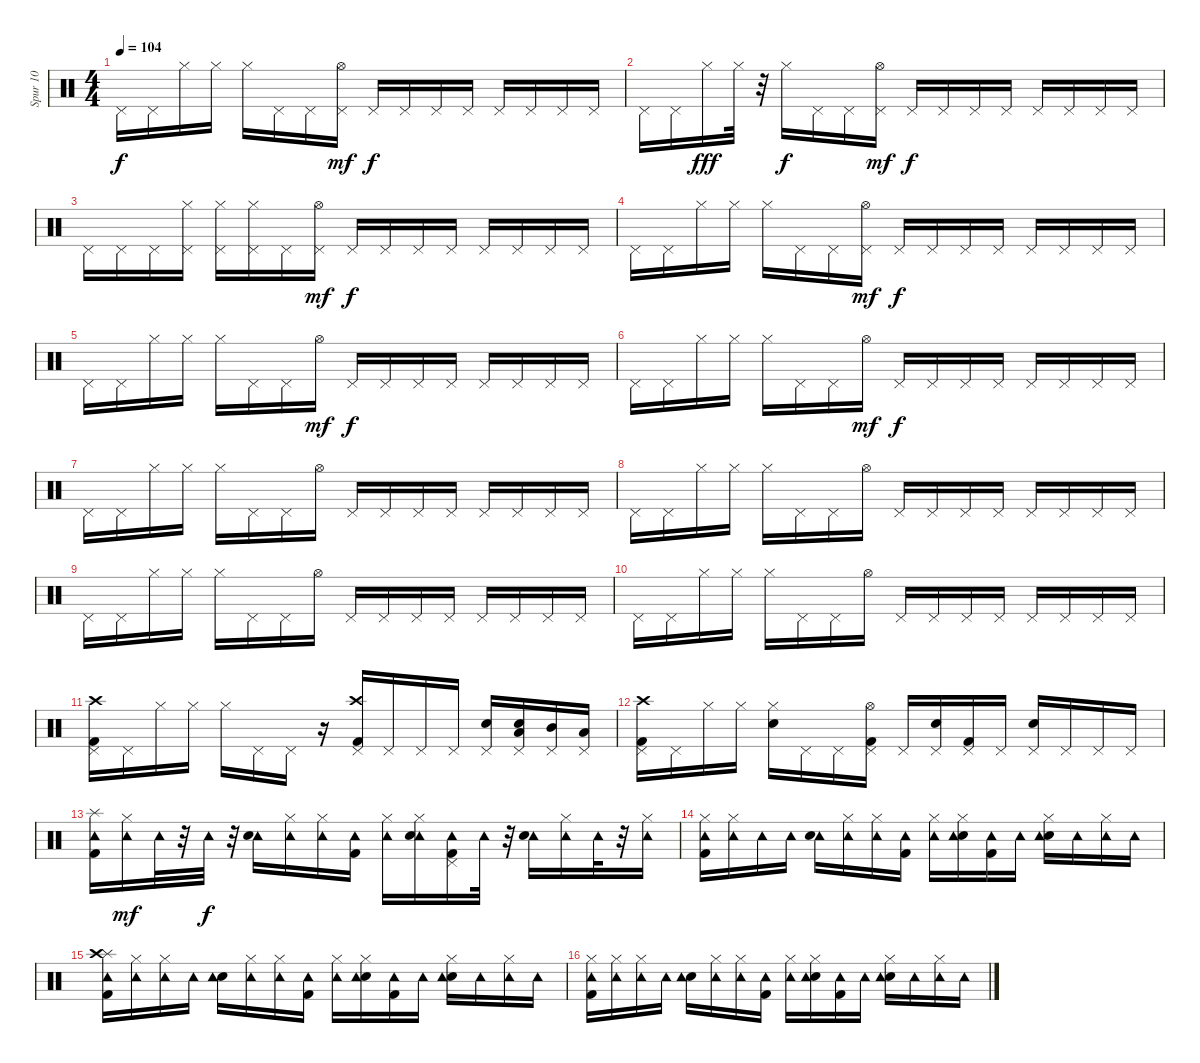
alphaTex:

\track ("Spur 10" "Spur 10") {instrument percussion}
\staff {score}
\articulation defaults
\ts (4 4)
\tempo 104
\clef neutral
\ks c "Pedal Hi-Hat (hit)".16{dy f} "Pedal Hi-Hat (hit)".16 "Hi-Hat (closed)".16 "Hi-Hat (closed)".16 "Hi-Hat (closed)".16 "Pedal Hi-Hat (hit)".16 "Pedal Hi-Hat (hit)".16
("Hi-Hat (open)" "Pedal Hi-Hat (hit)").16{dy mf} "Pedal Hi-Hat (hit)".16{dy f} "Pedal Hi-Hat (hit)".16 "Pedal Hi-Hat (hit)".16 "Pedal Hi-Hat (hit)".16 "Pedal Hi-Hat (hit)".16 "Pedal Hi-Hat (hit)".16 "Pedal Hi-Hat (hit)".16 "Pedal Hi-Hat (hit)".16 |
"Pedal Hi-Hat (hit)".16 "Pedal Hi-Hat (hit)".16 "Hi-Hat (closed)".16{dy fff} "Hi-Hat (closed)".32 r.32 "Hi-Hat (closed)".16{dy f} "Pedal Hi-Hat (hit)".16 "Pedal Hi-Hat (hit)".16 ("Hi-Hat (open)" "Pedal Hi-Hat (hit)").16{dy mf} "Pedal Hi-Hat (hit)".16{dy f} "Pedal Hi-Hat (hit)".16 "Pedal Hi-Hat (hit)".16 "Pedal Hi-Hat (hit)".16 "Pedal Hi-Hat (hit)".16 "Pedal Hi-Hat (hit)".16 "Pedal Hi-Hat (hit)".16 "Pedal Hi-Hat (hit)".16 |
"Pedal Hi-Hat (hit)".16 "Pedal Hi-Hat (hit)".16 "Pedal Hi-Hat (hit)".16 ("Pedal Hi-Hat (hit)" "Hi-Hat (closed)").16 ("Pedal Hi-Hat (hit)" "Hi-Hat (closed)").16 ("Pedal Hi-Hat (hit)" "Hi-Hat (closed)").16 "Pedal Hi-Hat (hit)".16 ("Hi-Hat (open)" "Pedal Hi-Hat (hit)").16{dy mf} "Pedal Hi-Hat (hit)".16{dy f} "Pedal Hi-Hat (hit)".16 "Pedal Hi-Hat (hit)".16 "Pedal Hi-Hat (hit)".16 "Pedal Hi-Hat (hit)".16 "Pedal Hi-Hat (hit)".16 "Pedal Hi-Hat (hit)".16 "Pedal Hi-Hat (hit)".16 |
"Pedal Hi-Hat (hit)".16 "Pedal Hi-Hat (hit)".16 "Hi-Hat (closed)".16 "Hi-Hat (closed)".16 "Hi-Hat (closed)".16 "Pedal Hi-Hat (hit)".16 "Pedal Hi-Hat (hit)".16 ("Hi-Hat (open)" "Pedal Hi-Hat (hit)").16{dy mf} "Pedal Hi-Hat (hit)".16{dy f} "Pedal Hi-Hat (hit)".16 "Pedal Hi-Hat (hit)".16 "Pedal Hi-Hat (hit)".16 "Pedal Hi-Hat (hit)".16 "Pedal Hi-Hat (hit)".16 "Pedal Hi-Hat (hit)".16 "Pedal Hi-Hat (hit)".16 |
"Pedal Hi-Hat (hit)".16 "Pedal Hi-Hat (hit)".16 "Hi-Hat (closed)".16 "Hi-Hat (closed)".16 "Hi-Hat (closed)".16 "Pedal Hi-Hat (hit)".16 "Pedal Hi-Hat (hit)".16 "Hi-Hat (open)".16{dy mf} "Pedal Hi-Hat (hit)".16{dy f} "Pedal Hi-Hat (hit)".16 "Pedal Hi-Hat (hit)".16 "Pedal Hi-Hat (hit)".16 "Pedal Hi-Hat (hit)".16 "Pedal Hi-Hat (hit)".16 "Pedal Hi-Hat (hit)".16 "Pedal Hi-Hat (hit)".16 |
"Pedal Hi-Hat (hit)".16 "Pedal Hi-Hat (hit)".16 "Hi-Hat (closed)".16 "Hi-Hat (closed)".16 "Hi-Hat (closed)".16 "Pedal Hi-Hat (hit)".16 "Pedal Hi-Hat (hit)".16 "Hi-Hat (open)".16{dy mf} "Pedal Hi-Hat (hit)".16{dy f} "Pedal Hi-Hat (hit)".16 "Pedal Hi-Hat (hit)".16 "Pedal Hi-Hat (hit)".16 "Pedal Hi-Hat (hit)".16 "Pedal Hi-Hat (hit)".16 "Pedal Hi-Hat (hit)".16 "Pedal Hi-Hat (hit)".16 |
"Pedal Hi-Hat (hit)".16 "Pedal Hi-Hat (hit)".16 "Hi-Hat (closed)".16 "Hi-Hat (closed)".16 "Hi-Hat (closed)".16 "Pedal Hi-Hat (hit)".16 "Pedal Hi-Hat (hit)".16 "Hi-Hat (open)".16 "Pedal Hi-Hat (hit)".16 "Pedal Hi-Hat (hit)".16 "Pedal Hi-Hat (hit)".16 "Pedal Hi-Hat (hit)".16 "Pedal Hi-Hat (hit)".16 "Pedal Hi-Hat (hit)".16 "Pedal Hi-Hat (hit)".16 "Pedal Hi-Hat (hit)".16 |
"Pedal Hi-Hat (hit)".16 "Pedal Hi-Hat (hit)".16 "Hi-Hat (closed)".16 "Hi-Hat (closed)".16 "Hi-Hat (closed)".16 "Pedal Hi-Hat (hit)".16 "Pedal Hi-Hat (hit)".16 "Hi-Hat (open)".16 "Pedal Hi-Hat (hit)".16 "Pedal Hi-Hat (hit)".16 "Pedal Hi-Hat (hit)".16 "Pedal Hi-Hat (hit)".16 "Pedal Hi-Hat (hit)".16 "Pedal Hi-Hat (hit)".16 "Pedal Hi-Hat (hit)".16 "Pedal Hi-Hat (hit)".16 |
"Pedal Hi-Hat (hit)".16 "Pedal Hi-Hat (hit)".16 "Hi-Hat (closed)".16 "Hi-Hat (closed)".16 "Hi-Hat (closed)".16 "Pedal Hi-Hat (hit)".16 "Pedal Hi-Hat (hit)".16 "Hi-Hat (open)".16 "Pedal Hi-Hat (hit)".16 "Pedal Hi-Hat (hit)".16 "Pedal Hi-Hat (hit)".16 "Pedal Hi-Hat (hit)".16 "Pedal Hi-Hat (hit)".16 "Pedal Hi-Hat (hit)".16 "Pedal Hi-Hat (hit)".16 "Pedal Hi-Hat (hit)".16 |
"Pedal Hi-Hat (hit)".16 "Pedal Hi-Hat (hit)".16 "Hi-Hat (closed)".16 "Hi-Hat (closed)".16 "Hi-Hat (closed)".16 "Pedal Hi-Hat (hit)".16 "Pedal Hi-Hat (hit)".16 "Hi-Hat (open)".16 "Pedal Hi-Hat (hit)".16 "Pedal Hi-Hat (hit)".16 "Pedal Hi-Hat (hit)".16 "Pedal Hi-Hat (hit)".16 "Pedal Hi-Hat (hit)".16 "Pedal Hi-Hat (hit)".16 "Pedal Hi-Hat (hit)".16 "Pedal Hi-Hat (hit)".16 |
("Crash high (hit)" "Pedal Hi-Hat (hit)" "Kick (hit) 2").16 "Pedal Hi-Hat (hit)".16 "Hi-Hat (closed)".16 "Hi-Hat (closed)".16 "Hi-Hat (closed)".16 "Pedal Hi-Hat (hit)".16 "Pedal Hi-Hat (hit)".16 r.16 ("Crash high (hit)" "Kick (hit) 2" "Pedal Hi-Hat (hit)").16 "Pedal Hi-Hat (hit)".16 "Pedal Hi-Hat (hit)".16 "Pedal Hi-Hat (hit)".16 ("Electric Snare (hit)" "Pedal Hi-Hat (hit)").16 ("Low Tom (hit)" "Electric Snare (hit)" "Pedal Hi-Hat (hit)").16 ("Mid Tom (hit)" "Pedal Hi-Hat (hit)").16 ("Low Tom (hit)" "Pedal Hi-Hat (hit)").16 |
("Crash high (hit)" "Kick (hit) 2" "Pedal Hi-Hat (hit)").16 "Pedal Hi-Hat (hit)".16 "Hi-Hat (closed)".16 "Hi-Hat (closed)".16 ("Electric Snare (hit)" "Hi-Hat (closed)").16 "Pedal Hi-Hat (hit)".16 "Pedal Hi-Hat (hit)".16 ("Hi-Hat (open)" "Kick (hit) 2" "Pedal Hi-Hat (hit)").16 "Pedal Hi-Hat (hit)".16 ("Electric Snare (hit)" "Pedal Hi-Hat (hit)").16 ("Kick (hit) 2" "Pedal Hi-Hat (hit)").16 "Pedal Hi-Hat (hit)".16 ("Electric Snare (hit)" "Pedal Hi-Hat (hit)").16 "Pedal Hi-Hat (hit)".16 "Pedal Hi-Hat (hit)".16 "Pedal Hi-Hat (hit)".16 |
("Tambourine (hit)" "Splash (hit)" "Kick (hit) 2").16 ("Hi-Hat (closed)" "Tambourine (hit)").16{dy mf} "Tambourine (hit)".32 r.32 "Tambourine (hit)".32{dy f} r.32 ("Tambourine (hit)" "Electric Snare (hit)").16 ("Hi-Hat (closed)" "Tambourine (hit)").16 ("Hi-Hat (closed)" "Tambourine (hit)").16 ("Tambourine (hit)" "Kick (hit) 2").16 ("Hi-Hat (closed)" "Tambourine (hit)").16 ("Hi-Hat (closed)" "Tambourine (hit)" "Electric Snare (hit)").16 ("Tambourine (hit)" "Kick (hit) 2" "Pedal Hi-Hat (hit)").16 "Tambourine (hit)".32 r.32 ("Tambourine (hit)" "Electric Snare (hit)").16 ("Hi-Hat (closed)" "Tambourine (hit)").16 "Tambourine (hit)".32 r.32 ("Hi-Hat (closed)" "Tambourine (hit)").16 |
("Hi-Hat (closed)" "Kick (hit) 2" "Tambourine (hit)").16 ("Hi-Hat (closed)" "Tambourine (hit)").16 "Tambourine (hit)".16 "Tambourine (hit)".16 ("Tambourine (hit)" "Electric Snare (hit)").16 ("Hi-Hat (closed)" "Tambourine (hit)").16 ("Hi-Hat (closed)" "Tambourine (hit)").16 ("Tambourine (hit)" "Kick (hit) 2").16 ("Hi-Hat (closed)" "Tambourine (hit)").16 ("Hi-Hat (closed)" "Electric Snare (hit)" "Tambourine (hit)").16 ("Kick (hit) 2" "Tambourine (hit)").16 "Tambourine (hit)".16 ("Hi-Hat (closed)" "Electric Snare (hit)" "Tambourine (hit)").16 "Tambourine (hit)".16 ("Hi-Hat (closed)" "Tambourine (hit)").16 "Tambourine (hit)".16 |
("Tambourine (hit)" "Kick (hit) 2" "Splash (hit)" "Crash high (hit)").16 ("Hi-Hat (closed)" "Tambourine (hit)").16 ("Hi-Hat (closed)" "Tambourine (hit)").16 "Tambourine (hit)".16 ("Electric Snare (hit)" "Tambourine (hit)").16 ("Hi-Hat (closed)" "Tambourine (hit)").16 ("Hi-Hat (closed)" "Tambourine (hit)").16 ("Kick (hit) 2" "Tambourine (hit)").16 ("Hi-Hat (closed)" "Tambourine (hit)").16 ("Electric Snare (hit)" "Hi-Hat (closed)" "Tambourine (hit)").16 ("Kick (hit) 2" "Tambourine (hit)").16 "Tambourine (hit)".16 ("Electric Snare (hit)" "Hi-Hat (closed)" "Tambourine (hit)").16 "Tambourine (hit)".16 ("Hi-Hat (closed)" "Tambourine (hit)").16 "Tambourine (hit)".16 |
("Kick (hit) 2" "Hi-Hat (closed)" "Tambourine (hit)").16 ("Hi-Hat (closed)" "Tambourine (hit)").16 ("Hi-Hat (closed)" "Tambourine (hit)").16 "Tambourine (hit)".16 ("Electric Snare (hit)" "Tambourine (hit)").16 ("Hi-Hat (closed)" "Tambourine (hit)").16 ("Hi-Hat (closed)" "Tambourine (hit)").16 ("Kick (hit) 2" "Tambourine (hit)").16 ("Hi-Hat (closed)" "Tambourine (hit)").16 ("Electric Snare (hit)" "Hi-Hat (closed)" "Tambourine (hit)").16 ("Kick (hit) 2" "Tambourine (hit)").16 "Tambourine (hit)".16 ("Hi-Hat (closed)" "Electric Snare (hit)" "Tambourine (hit)").16 "Tambourine (hit)".16 ("Hi-Hat (closed)" "Tambourine (hit)").16 "Tambourine (hit)".16
